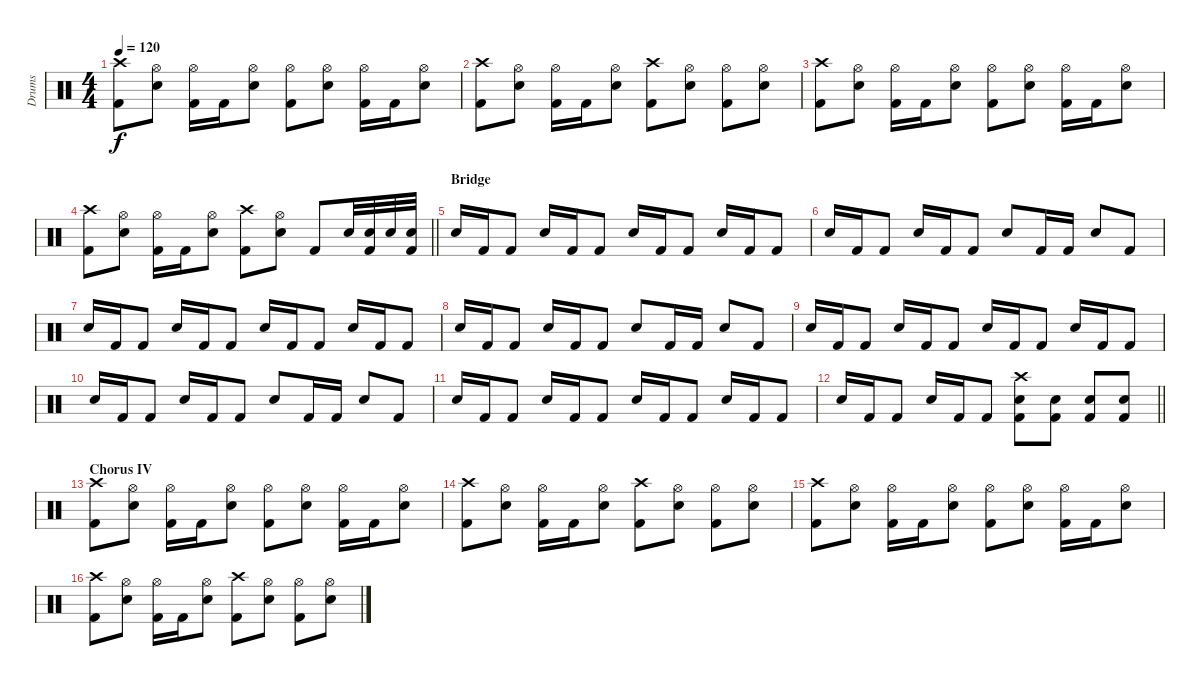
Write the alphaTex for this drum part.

\track ("Drums" "Drums") {instrument percussion}
\staff {score}
\articulation defaults
\ts (4 4)
\tempo 120
\clef neutral
\ks c
("Crash high (hit)" "Kick (hit) 2").8{dy f} ("Hi-Hat (open)" "Electric Snare (hit)").8 ("Hi-Hat (open)" "Kick (hit) 2").16 "Kick (hit) 2".16 ("Hi-Hat (open)" "Electric Snare (hit)").8 ("Hi-Hat (open)" "Kick (hit) 2").8 ("Hi-Hat (open)" "Electric Snare (hit)").8 ("Hi-Hat (open)" "Kick (hit) 2").16 "Kick (hit) 2".16 ("Hi-Hat (open)" "Electric Snare (hit)").8 |
("Crash high (hit)" "Kick (hit) 2").8 ("Hi-Hat (open)" "Electric Snare (hit)").8 ("Hi-Hat (open)" "Kick (hit) 2").16 "Kick (hit) 2".16 ("Hi-Hat (open)" "Electric Snare (hit)").8 ("Crash high (hit)" "Kick (hit) 2").8 ("Hi-Hat (open)" "Electric Snare (hit)").8 ("Hi-Hat (open)" "Kick (hit) 2").8 ("Hi-Hat (open)" "Electric Snare (hit)").8 |
("Crash high (hit)" "Kick (hit) 2").8 ("Hi-Hat (open)" "Electric Snare (hit)").8 ("Hi-Hat (open)" "Kick (hit) 2").16 "Kick (hit) 2".16 ("Hi-Hat (open)" "Electric Snare (hit)").8 ("Hi-Hat (open)" "Kick (hit) 2").8 ("Hi-Hat (open)" "Electric Snare (hit)").8 ("Hi-Hat (open)" "Kick (hit) 2").16 "Kick (hit) 2".16 ("Hi-Hat (open)" "Electric Snare (hit)").8 |
\barLineRight lightlight
("Crash high (hit)" "Kick (hit) 2").8 ("Hi-Hat (open)" "Electric Snare (hit)").8 ("Hi-Hat (open)" "Kick (hit) 2").16 "Kick (hit) 2".16 ("Hi-Hat (open)" "Electric Snare (hit)").8 ("Crash high (hit)" "Kick (hit) 2").8 ("Hi-Hat (open)" "Electric Snare (hit)").8 "Kick (hit) 2".8 "Electric Snare (hit)".32 ("Electric Snare (hit)" "Kick (hit) 2").32 "Electric Snare (hit)".32 ("Electric Snare (hit)" "Kick (hit) 2").32 |
\section ("" "Bridge")
"Electric Snare (hit)".16 "Kick (hit) 2".16 "Kick (hit) 2".8 "Electric Snare (hit)".16 "Kick (hit) 2".16 "Kick (hit) 2".8 "Electric Snare (hit)".16 "Kick (hit) 2".16 "Kick (hit) 2".8 "Electric Snare (hit)".16 "Kick (hit) 2".16 "Kick (hit) 2".8 |
"Electric Snare (hit)".16 "Kick (hit) 2".16 "Kick (hit) 2".8 "Electric Snare (hit)".16 "Kick (hit) 2".16 "Kick (hit) 2".8 "Electric Snare (hit)".8 "Kick (hit) 2".16 "Kick (hit) 2".16 "Electric Snare (hit)".8 "Kick (hit) 2".8 |
"Electric Snare (hit)".16 "Kick (hit) 2".16 "Kick (hit) 2".8 "Electric Snare (hit)".16 "Kick (hit) 2".16 "Kick (hit) 2".8 "Electric Snare (hit)".16 "Kick (hit) 2".16 "Kick (hit) 2".8 "Electric Snare (hit)".16 "Kick (hit) 2".16 "Kick (hit) 2".8 |
"Electric Snare (hit)".16 "Kick (hit) 2".16 "Kick (hit) 2".8 "Electric Snare (hit)".16 "Kick (hit) 2".16 "Kick (hit) 2".8 "Electric Snare (hit)".8 "Kick (hit) 2".16 "Kick (hit) 2".16 "Electric Snare (hit)".8 "Kick (hit) 2".8 |
"Electric Snare (hit)".16 "Kick (hit) 2".16 "Kick (hit) 2".8 "Electric Snare (hit)".16 "Kick (hit) 2".16 "Kick (hit) 2".8 "Electric Snare (hit)".16 "Kick (hit) 2".16 "Kick (hit) 2".8 "Electric Snare (hit)".16 "Kick (hit) 2".16 "Kick (hit) 2".8 |
"Electric Snare (hit)".16 "Kick (hit) 2".16 "Kick (hit) 2".8 "Electric Snare (hit)".16 "Kick (hit) 2".16 "Kick (hit) 2".8 "Electric Snare (hit)".8 "Kick (hit) 2".16 "Kick (hit) 2".16 "Electric Snare (hit)".8 "Kick (hit) 2".8 |
"Electric Snare (hit)".16 "Kick (hit) 2".16 "Kick (hit) 2".8 "Electric Snare (hit)".16 "Kick (hit) 2".16 "Kick (hit) 2".8 "Electric Snare (hit)".16 "Kick (hit) 2".16 "Kick (hit) 2".8 "Electric Snare (hit)".16 "Kick (hit) 2".16 "Kick (hit) 2".8 |
\barLineRight lightlight "Electric Snare (hit)".16 "Kick (hit) 2".16 "Kick (hit) 2".8 "Electric Snare (hit)".16 "Kick (hit) 2".16 "Kick (hit) 2".8
("Crash high (hit)" "Electric Snare (hit)" "Kick (hit) 2").8 ("Electric Snare (hit)" "Kick (hit) 2").8 ("Electric Snare (hit)" "Kick (hit) 2").8 ("Electric Snare (hit)" "Kick (hit) 2").8 |
\section ("" "Chorus IV")
("Crash high (hit)" "Kick (hit) 2").8 ("Hi-Hat (open)" "Electric Snare (hit)").8 ("Hi-Hat (open)" "Kick (hit) 2").16 "Kick (hit) 2".16 ("Hi-Hat (open)" "Electric Snare (hit)").8 ("Hi-Hat (open)" "Kick (hit) 2").8 ("Hi-Hat (open)" "Electric Snare (hit)").8 ("Hi-Hat (open)" "Kick (hit) 2").16 "Kick (hit) 2".16 ("Hi-Hat (open)" "Electric Snare (hit)").8 |
("Crash high (hit)" "Kick (hit) 2").8 ("Hi-Hat (open)" "Electric Snare (hit)").8 ("Hi-Hat (open)" "Kick (hit) 2").16 "Kick (hit) 2".16 ("Hi-Hat (open)" "Electric Snare (hit)").8 ("Crash high (hit)" "Kick (hit) 2").8 ("Hi-Hat (open)" "Electric Snare (hit)").8 ("Hi-Hat (open)" "Kick (hit) 2").8 ("Hi-Hat (open)" "Electric Snare (hit)").8 |
("Crash high (hit)" "Kick (hit) 2").8 ("Hi-Hat (open)" "Electric Snare (hit)").8 ("Hi-Hat (open)" "Kick (hit) 2").16 "Kick (hit) 2".16 ("Hi-Hat (open)" "Electric Snare (hit)").8 ("Hi-Hat (open)" "Kick (hit) 2").8 ("Hi-Hat (open)" "Electric Snare (hit)").8 ("Hi-Hat (open)" "Kick (hit) 2").16 "Kick (hit) 2".16 ("Hi-Hat (open)" "Electric Snare (hit)").8 |
("Crash high (hit)" "Kick (hit) 2").8 ("Hi-Hat (open)" "Electric Snare (hit)").8 ("Hi-Hat (open)" "Kick (hit) 2").16 "Kick (hit) 2".16 ("Hi-Hat (open)" "Electric Snare (hit)").8 ("Crash high (hit)" "Kick (hit) 2").8 ("Hi-Hat (open)" "Electric Snare (hit)").8 ("Hi-Hat (open)" "Kick (hit) 2").8 ("Hi-Hat (open)" "Electric Snare (hit)").8
